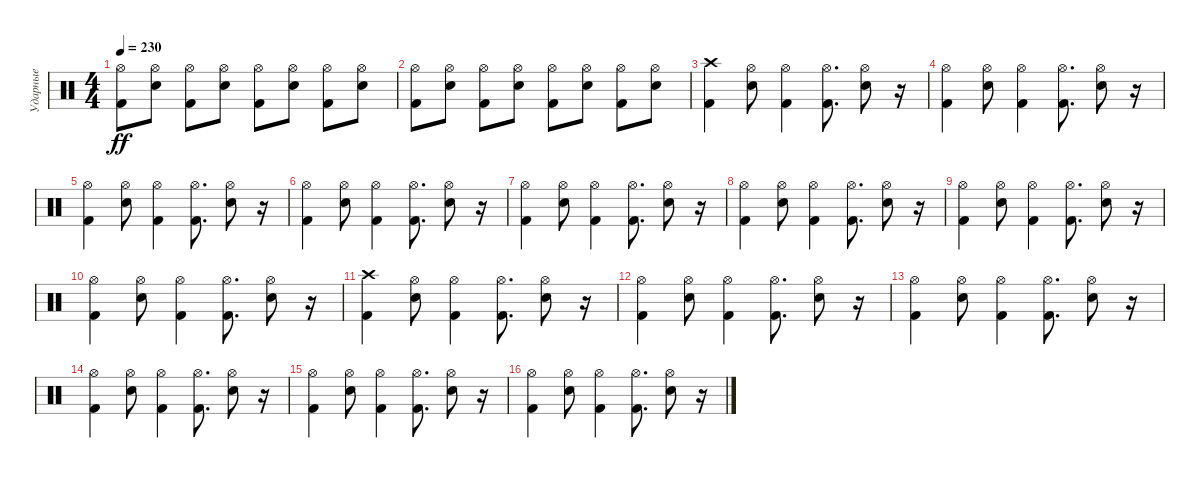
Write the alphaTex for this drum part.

\track ("Ударные" "Ударные") {instrument percussion}
\staff {score}
\articulation defaults
\ts (4 4)
\tempo 230
\clef neutral
\ks c
("Hi-Hat (open)" "Kick (hit) 2").8{dy ff} ("Hi-Hat (open)" "Snare (hit) 2").8 ("Hi-Hat (open)" "Kick (hit) 2").8 ("Hi-Hat (open)" "Snare (hit) 2").8 ("Hi-Hat (open)" "Kick (hit) 2").8 ("Hi-Hat (open)" "Snare (hit) 2").8 ("Hi-Hat (open)" "Kick (hit) 2").8 ("Hi-Hat (open)" "Snare (hit) 2").8 |
("Hi-Hat (open)" "Kick (hit) 2").8 ("Hi-Hat (open)" "Snare (hit) 2").8 ("Hi-Hat (open)" "Kick (hit) 2").8 ("Hi-Hat (open)" "Snare (hit) 2").8 ("Hi-Hat (open)" "Kick (hit) 2").8 ("Hi-Hat (open)" "Snare (hit) 2").8 ("Hi-Hat (open)" "Kick (hit) 2").8 ("Hi-Hat (open)" "Snare (hit) 2").8 |
("Kick (hit) 2" "Crash high (hit)").4 ("Snare (hit) 2" "Hi-Hat (open)").8 ("Kick (hit) 2" "Hi-Hat (open)").4 ("Kick (hit) 2" "Hi-Hat (open)").8{d} ("Snare (hit) 2" "Hi-Hat (open)").8 r.16 |
("Kick (hit) 2" "Hi-Hat (open)").4 ("Snare (hit) 2" "Hi-Hat (open)").8 ("Kick (hit) 2" "Hi-Hat (open)").4 ("Kick (hit) 2" "Hi-Hat (open)").8{d} ("Snare (hit) 2" "Hi-Hat (open)").8 r.16 |
("Kick (hit) 2" "Hi-Hat (open)").4 ("Snare (hit) 2" "Hi-Hat (open)").8 ("Kick (hit) 2" "Hi-Hat (open)").4 ("Kick (hit) 2" "Hi-Hat (open)").8{d} ("Snare (hit) 2" "Hi-Hat (open)").8 r.16 |
("Kick (hit) 2" "Hi-Hat (open)").4 ("Snare (hit) 2" "Hi-Hat (open)").8 ("Kick (hit) 2" "Hi-Hat (open)").4 ("Kick (hit) 2" "Hi-Hat (open)").8{d} ("Snare (hit) 2" "Hi-Hat (open)").8 r.16 |
("Kick (hit) 2" "Hi-Hat (open)").4 ("Snare (hit) 2" "Hi-Hat (open)").8 ("Kick (hit) 2" "Hi-Hat (open)").4 ("Kick (hit) 2" "Hi-Hat (open)").8{d} ("Snare (hit) 2" "Hi-Hat (open)").8 r.16 |
("Kick (hit) 2" "Hi-Hat (open)").4 ("Snare (hit) 2" "Hi-Hat (open)").8 ("Kick (hit) 2" "Hi-Hat (open)").4 ("Kick (hit) 2" "Hi-Hat (open)").8{d} ("Snare (hit) 2" "Hi-Hat (open)").8 r.16 |
("Kick (hit) 2" "Hi-Hat (open)").4 ("Snare (hit) 2" "Hi-Hat (open)").8 ("Kick (hit) 2" "Hi-Hat (open)").4 ("Kick (hit) 2" "Hi-Hat (open)").8{d} ("Snare (hit) 2" "Hi-Hat (open)").8 r.16 |
("Kick (hit) 2" "Hi-Hat (open)").4 ("Snare (hit) 2" "Hi-Hat (open)").8 ("Kick (hit) 2" "Hi-Hat (open)").4 ("Kick (hit) 2" "Hi-Hat (open)").8{d} ("Snare (hit) 2" "Hi-Hat (open)").8 r.16 |
("Kick (hit) 2" "Crash high (hit)").4 ("Snare (hit) 2" "Hi-Hat (open)").8 ("Kick (hit) 2" "Hi-Hat (open)").4 ("Kick (hit) 2" "Hi-Hat (open)").8{d} ("Snare (hit) 2" "Hi-Hat (open)").8 r.16 |
("Kick (hit) 2" "Hi-Hat (open)").4 ("Snare (hit) 2" "Hi-Hat (open)").8 ("Kick (hit) 2" "Hi-Hat (open)").4 ("Kick (hit) 2" "Hi-Hat (open)").8{d} ("Snare (hit) 2" "Hi-Hat (open)").8 r.16 |
("Kick (hit) 2" "Hi-Hat (open)").4 ("Snare (hit) 2" "Hi-Hat (open)").8 ("Kick (hit) 2" "Hi-Hat (open)").4 ("Kick (hit) 2" "Hi-Hat (open)").8{d} ("Snare (hit) 2" "Hi-Hat (open)").8 r.16 |
("Kick (hit) 2" "Hi-Hat (open)").4 ("Snare (hit) 2" "Hi-Hat (open)").8 ("Kick (hit) 2" "Hi-Hat (open)").4 ("Kick (hit) 2" "Hi-Hat (open)").8{d} ("Snare (hit) 2" "Hi-Hat (open)").8 r.16 |
("Kick (hit) 2" "Hi-Hat (open)").4 ("Snare (hit) 2" "Hi-Hat (open)").8 ("Kick (hit) 2" "Hi-Hat (open)").4 ("Kick (hit) 2" "Hi-Hat (open)").8{d} ("Snare (hit) 2" "Hi-Hat (open)").8 r.16 |
("Kick (hit) 2" "Hi-Hat (open)").4 ("Snare (hit) 2" "Hi-Hat (open)").8 ("Kick (hit) 2" "Hi-Hat (open)").4 ("Kick (hit) 2" "Hi-Hat (open)").8{d} ("Snare (hit) 2" "Hi-Hat (open)").8 r.16
